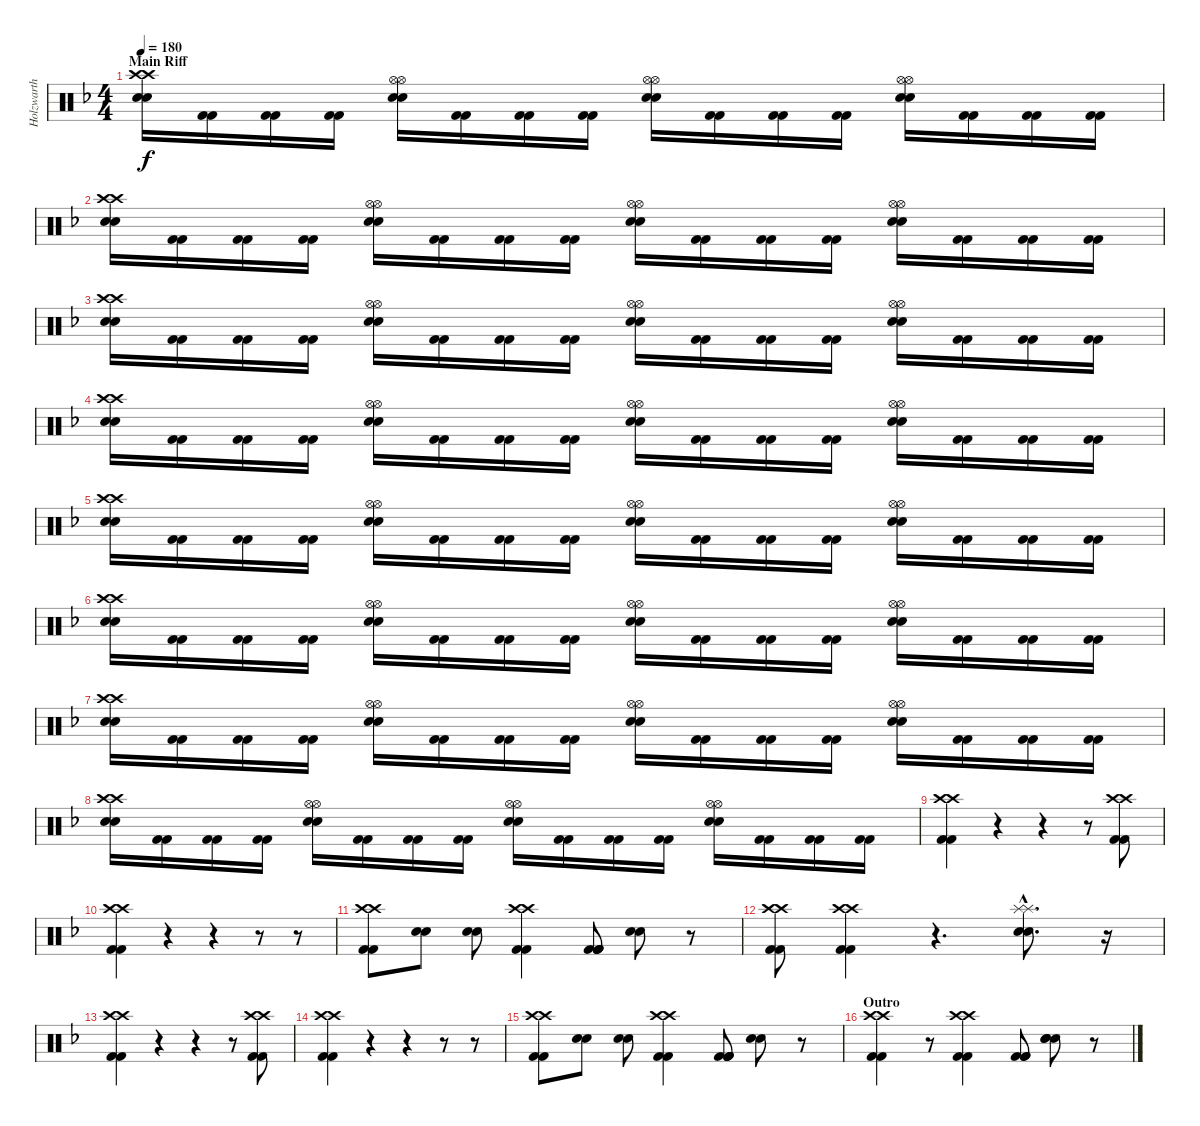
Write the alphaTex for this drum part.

\track ("Holzwarth" "Holzwarth") {instrument percussion}
\staff {score}
\articulation defaults
\ts (4 4)
\section ("" "Main Riff")
\tempo 180
\clef neutral
\ks dminor
("Snare (hit) 2" "Snare (hit) 2" "Crash high (hit)" "Crash high (hit)").16{dy f} ("Kick (hit) 2" "Kick (hit) 2").16 ("Kick (hit) 2" "Kick (hit) 2").16 ("Kick (hit) 2" "Kick (hit) 2").16 ("Snare (hit) 2" "Snare (hit) 2" "Hi-Hat (open)" "Hi-Hat (open)").16 ("Kick (hit) 2" "Kick (hit) 2").16 ("Kick (hit) 2" "Kick (hit) 2").16 ("Kick (hit) 2" "Kick (hit) 2").16 ("Snare (hit) 2" "Snare (hit) 2" "Hi-Hat (open)" "Hi-Hat (open)").16 ("Kick (hit) 2" "Kick (hit) 2").16 ("Kick (hit) 2" "Kick (hit) 2").16 ("Kick (hit) 2" "Kick (hit) 2").16 ("Snare (hit) 2" "Snare (hit) 2" "Hi-Hat (open)" "Hi-Hat (open)").16 ("Kick (hit) 2" "Kick (hit) 2").16 ("Kick (hit) 2" "Kick (hit) 2").16 ("Kick (hit) 2" "Kick (hit) 2").16 |
("Snare (hit) 2" "Snare (hit) 2" "Crash high (hit)" "Crash high (hit)").16 ("Kick (hit) 2" "Kick (hit) 2").16 ("Kick (hit) 2" "Kick (hit) 2").16 ("Kick (hit) 2" "Kick (hit) 2").16 ("Snare (hit) 2" "Snare (hit) 2" "Hi-Hat (open)" "Hi-Hat (open)").16 ("Kick (hit) 2" "Kick (hit) 2").16 ("Kick (hit) 2" "Kick (hit) 2").16 ("Kick (hit) 2" "Kick (hit) 2").16 ("Snare (hit) 2" "Snare (hit) 2" "Hi-Hat (open)" "Hi-Hat (open)").16 ("Kick (hit) 2" "Kick (hit) 2").16 ("Kick (hit) 2" "Kick (hit) 2").16 ("Kick (hit) 2" "Kick (hit) 2").16 ("Snare (hit) 2" "Snare (hit) 2" "Hi-Hat (open)" "Hi-Hat (open)").16 ("Kick (hit) 2" "Kick (hit) 2").16 ("Kick (hit) 2" "Kick (hit) 2").16 ("Kick (hit) 2" "Kick (hit) 2").16 |
("Snare (hit) 2" "Snare (hit) 2" "Crash high (hit)" "Crash high (hit)").16 ("Kick (hit) 2" "Kick (hit) 2").16 ("Kick (hit) 2" "Kick (hit) 2").16 ("Kick (hit) 2" "Kick (hit) 2").16 ("Snare (hit) 2" "Snare (hit) 2" "Hi-Hat (open)" "Hi-Hat (open)").16 ("Kick (hit) 2" "Kick (hit) 2").16 ("Kick (hit) 2" "Kick (hit) 2").16 ("Kick (hit) 2" "Kick (hit) 2").16 ("Snare (hit) 2" "Snare (hit) 2" "Hi-Hat (open)" "Hi-Hat (open)").16 ("Kick (hit) 2" "Kick (hit) 2").16 ("Kick (hit) 2" "Kick (hit) 2").16 ("Kick (hit) 2" "Kick (hit) 2").16 ("Snare (hit) 2" "Snare (hit) 2" "Hi-Hat (open)" "Hi-Hat (open)").16 ("Kick (hit) 2" "Kick (hit) 2").16 ("Kick (hit) 2" "Kick (hit) 2").16 ("Kick (hit) 2" "Kick (hit) 2").16 |
("Snare (hit) 2" "Snare (hit) 2" "Crash high (hit)" "Crash high (hit)").16 ("Kick (hit) 2" "Kick (hit) 2").16 ("Kick (hit) 2" "Kick (hit) 2").16 ("Kick (hit) 2" "Kick (hit) 2").16 ("Snare (hit) 2" "Snare (hit) 2" "Hi-Hat (open)" "Hi-Hat (open)").16 ("Kick (hit) 2" "Kick (hit) 2").16 ("Kick (hit) 2" "Kick (hit) 2").16 ("Kick (hit) 2" "Kick (hit) 2").16 ("Snare (hit) 2" "Snare (hit) 2" "Hi-Hat (open)" "Hi-Hat (open)").16 ("Kick (hit) 2" "Kick (hit) 2").16 ("Kick (hit) 2" "Kick (hit) 2").16 ("Kick (hit) 2" "Kick (hit) 2").16 ("Snare (hit) 2" "Snare (hit) 2" "Hi-Hat (open)" "Hi-Hat (open)").16 ("Kick (hit) 2" "Kick (hit) 2").16 ("Kick (hit) 2" "Kick (hit) 2").16 ("Kick (hit) 2" "Kick (hit) 2").16 |
("Snare (hit) 2" "Snare (hit) 2" "Crash high (hit)" "Crash high (hit)").16 ("Kick (hit) 2" "Kick (hit) 2").16 ("Kick (hit) 2" "Kick (hit) 2").16 ("Kick (hit) 2" "Kick (hit) 2").16 ("Snare (hit) 2" "Snare (hit) 2" "Hi-Hat (open)" "Hi-Hat (open)").16 ("Kick (hit) 2" "Kick (hit) 2").16 ("Kick (hit) 2" "Kick (hit) 2").16 ("Kick (hit) 2" "Kick (hit) 2").16 ("Snare (hit) 2" "Snare (hit) 2" "Hi-Hat (open)" "Hi-Hat (open)").16 ("Kick (hit) 2" "Kick (hit) 2").16 ("Kick (hit) 2" "Kick (hit) 2").16 ("Kick (hit) 2" "Kick (hit) 2").16 ("Snare (hit) 2" "Snare (hit) 2" "Hi-Hat (open)" "Hi-Hat (open)").16 ("Kick (hit) 2" "Kick (hit) 2").16 ("Kick (hit) 2" "Kick (hit) 2").16 ("Kick (hit) 2" "Kick (hit) 2").16 |
("Snare (hit) 2" "Snare (hit) 2" "Crash high (hit)" "Crash high (hit)").16 ("Kick (hit) 2" "Kick (hit) 2").16 ("Kick (hit) 2" "Kick (hit) 2").16 ("Kick (hit) 2" "Kick (hit) 2").16 ("Snare (hit) 2" "Snare (hit) 2" "Hi-Hat (open)" "Hi-Hat (open)").16 ("Kick (hit) 2" "Kick (hit) 2").16 ("Kick (hit) 2" "Kick (hit) 2").16 ("Kick (hit) 2" "Kick (hit) 2").16 ("Snare (hit) 2" "Snare (hit) 2" "Hi-Hat (open)" "Hi-Hat (open)").16 ("Kick (hit) 2" "Kick (hit) 2").16 ("Kick (hit) 2" "Kick (hit) 2").16 ("Kick (hit) 2" "Kick (hit) 2").16 ("Snare (hit) 2" "Snare (hit) 2" "Hi-Hat (open)" "Hi-Hat (open)").16 ("Kick (hit) 2" "Kick (hit) 2").16 ("Kick (hit) 2" "Kick (hit) 2").16 ("Kick (hit) 2" "Kick (hit) 2").16 |
("Snare (hit) 2" "Snare (hit) 2" "Crash high (hit)" "Crash high (hit)").16 ("Kick (hit) 2" "Kick (hit) 2").16 ("Kick (hit) 2" "Kick (hit) 2").16 ("Kick (hit) 2" "Kick (hit) 2").16 ("Snare (hit) 2" "Snare (hit) 2" "Hi-Hat (open)" "Hi-Hat (open)").16 ("Kick (hit) 2" "Kick (hit) 2").16 ("Kick (hit) 2" "Kick (hit) 2").16 ("Kick (hit) 2" "Kick (hit) 2").16 ("Snare (hit) 2" "Snare (hit) 2" "Hi-Hat (open)" "Hi-Hat (open)").16 ("Kick (hit) 2" "Kick (hit) 2").16 ("Kick (hit) 2" "Kick (hit) 2").16 ("Kick (hit) 2" "Kick (hit) 2").16 ("Snare (hit) 2" "Snare (hit) 2" "Hi-Hat (open)" "Hi-Hat (open)").16 ("Kick (hit) 2" "Kick (hit) 2").16 ("Kick (hit) 2" "Kick (hit) 2").16 ("Kick (hit) 2" "Kick (hit) 2").16 |
("Snare (hit) 2" "Snare (hit) 2" "Crash high (hit)" "Crash high (hit)").16 ("Kick (hit) 2" "Kick (hit) 2").16 ("Kick (hit) 2" "Kick (hit) 2").16 ("Kick (hit) 2" "Kick (hit) 2").16 ("Snare (hit) 2" "Snare (hit) 2" "Hi-Hat (open)" "Hi-Hat (open)").16 ("Kick (hit) 2" "Kick (hit) 2").16 ("Kick (hit) 2" "Kick (hit) 2").16 ("Kick (hit) 2" "Kick (hit) 2").16 ("Snare (hit) 2" "Snare (hit) 2" "Hi-Hat (open)" "Hi-Hat (open)").16 ("Kick (hit) 2" "Kick (hit) 2").16 ("Kick (hit) 2" "Kick (hit) 2").16 ("Kick (hit) 2" "Kick (hit) 2").16 ("Snare (hit) 2" "Snare (hit) 2" "Hi-Hat (open)" "Hi-Hat (open)").16 ("Kick (hit) 2" "Kick (hit) 2").16 ("Kick (hit) 2" "Kick (hit) 2").16 ("Kick (hit) 2" "Kick (hit) 2").16 |
("Kick (hit) 2" "Kick (hit) 2" "Crash high (hit)" "Crash high (hit)").4 r.4 r.4 r.8 ("Kick (hit) 2" "Kick (hit) 2" "Crash high (hit)" "Crash high (hit)").8 |
("Kick (hit) 2" "Kick (hit) 2" "Crash high (hit)" "Crash high (hit)").4 r.4 r.4 r.8 r.8 |
("Kick (hit) 2" "Kick (hit) 2" "Crash high (hit)" "Crash high (hit)").8 ("Snare (hit) 2" "Snare (hit) 2").8 ("Snare (hit) 2" "Snare (hit) 2").8 ("Kick (hit) 2" "Kick (hit) 2" "Crash high (hit)" "Crash high (hit)").4 ("Kick (hit) 2" "Kick (hit) 2" "Kick (hit) 2" "Kick (hit) 2").8 ("Snare (hit) 2" "Snare (hit) 2").8 r.8 |
("Kick (hit) 2" "Kick (hit) 2" "Crash high (hit)" "Crash high (hit)").8 ("Kick (hit) 2" "Kick (hit) 2" "Crash high (hit)" "Crash high (hit)").4 r.4{d} ("Snare (hit) 2"{hac} "Snare (hit) 2"{hac} "Splash (hit)"{hac} "Splash (hit)"{hac}).8{d} r.16 |
("Kick (hit) 2" "Kick (hit) 2" "Crash high (hit)" "Crash high (hit)").4 r.4 r.4 r.8 ("Kick (hit) 2" "Kick (hit) 2" "Crash high (hit)" "Crash high (hit)").8 |
("Kick (hit) 2" "Kick (hit) 2" "Crash high (hit)" "Crash high (hit)").4 r.4 r.4 r.8 r.8 |
("Kick (hit) 2" "Kick (hit) 2" "Crash high (hit)" "Crash high (hit)").8 ("Snare (hit) 2" "Snare (hit) 2").8 ("Snare (hit) 2" "Snare (hit) 2").8 ("Kick (hit) 2" "Kick (hit) 2" "Crash high (hit)" "Crash high (hit)").4 ("Kick (hit) 2" "Kick (hit) 2" "Kick (hit) 2" "Kick (hit) 2").8 ("Snare (hit) 2" "Snare (hit) 2").8 r.8 |
\section ("" "Outro")
("Kick (hit) 2" "Kick (hit) 2" "Crash high (hit)" "Crash high (hit)").4 r.8 ("Kick (hit) 2" "Kick (hit) 2" "Crash high (hit)" "Crash high (hit)").4 ("Kick (hit) 2" "Kick (hit) 2" "Kick (hit) 2").8 ("Snare (hit) 2" "Snare (hit) 2" "Snare (hit) 2").8 r.8
